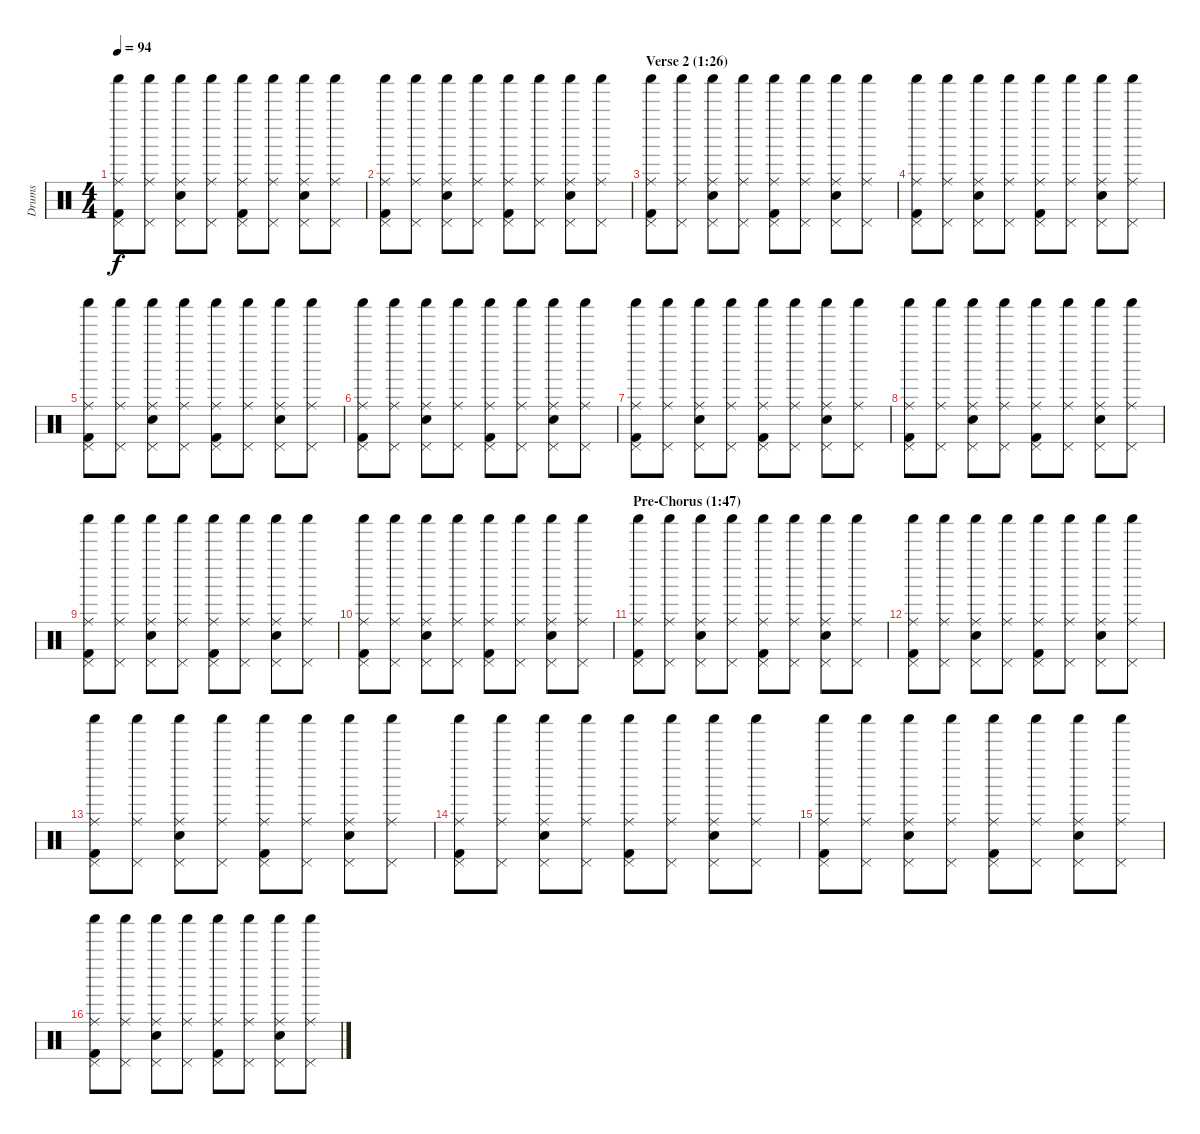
\track ("Drums" "Drums") {instrument percussion}
\staff {score}
\articulation defaults
\ts (4 4)
\tempo 94
\clef neutral
\ks c
("Pedal Hi-Hat (hit)" "Ride (middle)" "Shaker (hit)" "Kick (hit) 2").8{dy f} ("Pedal Hi-Hat (hit)" "Ride (middle)" "Shaker (hit)").8 ("Pedal Hi-Hat (hit)" "Ride (middle)" "Shaker (hit)" "Snare (hit) 2").8 ("Pedal Hi-Hat (hit)" "Ride (middle)" "Shaker (hit)").8 ("Pedal Hi-Hat (hit)" "Ride (middle)" "Shaker (hit)" "Kick (hit) 2").8 ("Pedal Hi-Hat (hit)" "Ride (middle)" "Shaker (hit)").8 ("Pedal Hi-Hat (hit)" "Ride (middle)" "Shaker (hit)" "Snare (hit) 2").8 ("Pedal Hi-Hat (hit)" "Ride (middle)" "Shaker (hit)").8 |
("Pedal Hi-Hat (hit)" "Ride (middle)" "Shaker (hit)" "Kick (hit) 2").8 ("Pedal Hi-Hat (hit)" "Ride (middle)" "Shaker (hit)").8 ("Pedal Hi-Hat (hit)" "Ride (middle)" "Shaker (hit)" "Snare (hit) 2").8 ("Pedal Hi-Hat (hit)" "Ride (middle)" "Shaker (hit)").8 ("Pedal Hi-Hat (hit)" "Ride (middle)" "Shaker (hit)" "Kick (hit) 2").8 ("Pedal Hi-Hat (hit)" "Ride (middle)" "Shaker (hit)").8 ("Pedal Hi-Hat (hit)" "Ride (middle)" "Shaker (hit)" "Snare (hit) 2").8 ("Pedal Hi-Hat (hit)" "Ride (middle)" "Shaker (hit)").8 |
\section ("" "Verse 2 (1:26)")
("Pedal Hi-Hat (hit)" "Ride (middle)" "Shaker (hit)" "Kick (hit) 2").8 ("Pedal Hi-Hat (hit)" "Ride (middle)" "Shaker (hit)").8 ("Pedal Hi-Hat (hit)" "Ride (middle)" "Shaker (hit)" "Snare (hit) 2").8 ("Pedal Hi-Hat (hit)" "Ride (middle)" "Shaker (hit)").8 ("Pedal Hi-Hat (hit)" "Ride (middle)" "Shaker (hit)" "Kick (hit) 2").8 ("Pedal Hi-Hat (hit)" "Ride (middle)" "Shaker (hit)").8 ("Pedal Hi-Hat (hit)" "Ride (middle)" "Shaker (hit)" "Snare (hit) 2").8 ("Pedal Hi-Hat (hit)" "Ride (middle)" "Shaker (hit)").8 |
("Pedal Hi-Hat (hit)" "Ride (middle)" "Shaker (hit)" "Kick (hit) 2").8 ("Pedal Hi-Hat (hit)" "Ride (middle)" "Shaker (hit)").8 ("Pedal Hi-Hat (hit)" "Ride (middle)" "Shaker (hit)" "Snare (hit) 2").8 ("Pedal Hi-Hat (hit)" "Ride (middle)" "Shaker (hit)").8 ("Pedal Hi-Hat (hit)" "Ride (middle)" "Shaker (hit)" "Kick (hit) 2").8 ("Pedal Hi-Hat (hit)" "Ride (middle)" "Shaker (hit)").8 ("Pedal Hi-Hat (hit)" "Ride (middle)" "Shaker (hit)" "Snare (hit) 2").8 ("Pedal Hi-Hat (hit)" "Ride (middle)" "Shaker (hit)").8 |
("Pedal Hi-Hat (hit)" "Ride (middle)" "Shaker (hit)" "Kick (hit) 2").8 ("Pedal Hi-Hat (hit)" "Ride (middle)" "Shaker (hit)").8 ("Pedal Hi-Hat (hit)" "Ride (middle)" "Shaker (hit)" "Snare (hit) 2").8 ("Pedal Hi-Hat (hit)" "Ride (middle)" "Shaker (hit)").8 ("Pedal Hi-Hat (hit)" "Ride (middle)" "Shaker (hit)" "Kick (hit) 2").8 ("Pedal Hi-Hat (hit)" "Ride (middle)" "Shaker (hit)").8 ("Pedal Hi-Hat (hit)" "Ride (middle)" "Shaker (hit)" "Snare (hit) 2").8 ("Pedal Hi-Hat (hit)" "Ride (middle)" "Shaker (hit)").8 |
("Pedal Hi-Hat (hit)" "Ride (middle)" "Shaker (hit)" "Kick (hit) 2").8 ("Pedal Hi-Hat (hit)" "Ride (middle)" "Shaker (hit)").8 ("Pedal Hi-Hat (hit)" "Ride (middle)" "Shaker (hit)" "Snare (hit) 2").8 ("Pedal Hi-Hat (hit)" "Ride (middle)" "Shaker (hit)").8 ("Pedal Hi-Hat (hit)" "Ride (middle)" "Shaker (hit)" "Kick (hit) 2").8 ("Pedal Hi-Hat (hit)" "Ride (middle)" "Shaker (hit)").8 ("Pedal Hi-Hat (hit)" "Ride (middle)" "Shaker (hit)" "Snare (hit) 2").8 ("Pedal Hi-Hat (hit)" "Ride (middle)" "Shaker (hit)").8 |
("Pedal Hi-Hat (hit)" "Ride (middle)" "Shaker (hit)" "Kick (hit) 2").8 ("Pedal Hi-Hat (hit)" "Ride (middle)" "Shaker (hit)").8 ("Pedal Hi-Hat (hit)" "Ride (middle)" "Shaker (hit)" "Snare (hit) 2").8 ("Pedal Hi-Hat (hit)" "Ride (middle)" "Shaker (hit)").8 ("Pedal Hi-Hat (hit)" "Ride (middle)" "Shaker (hit)" "Kick (hit) 2").8 ("Pedal Hi-Hat (hit)" "Ride (middle)" "Shaker (hit)").8 ("Pedal Hi-Hat (hit)" "Ride (middle)" "Shaker (hit)" "Snare (hit) 2").8 ("Pedal Hi-Hat (hit)" "Ride (middle)" "Shaker (hit)").8 |
("Pedal Hi-Hat (hit)" "Ride (middle)" "Shaker (hit)" "Kick (hit) 2").8 ("Pedal Hi-Hat (hit)" "Ride (middle)" "Shaker (hit)").8 ("Pedal Hi-Hat (hit)" "Ride (middle)" "Shaker (hit)" "Snare (hit) 2").8 ("Pedal Hi-Hat (hit)" "Ride (middle)" "Shaker (hit)").8 ("Pedal Hi-Hat (hit)" "Ride (middle)" "Shaker (hit)" "Kick (hit) 2").8 ("Pedal Hi-Hat (hit)" "Ride (middle)" "Shaker (hit)").8 ("Pedal Hi-Hat (hit)" "Ride (middle)" "Shaker (hit)" "Snare (hit) 2").8 ("Pedal Hi-Hat (hit)" "Ride (middle)" "Shaker (hit)").8 |
("Pedal Hi-Hat (hit)" "Ride (middle)" "Shaker (hit)" "Kick (hit) 2").8 ("Pedal Hi-Hat (hit)" "Ride (middle)" "Shaker (hit)").8 ("Pedal Hi-Hat (hit)" "Ride (middle)" "Shaker (hit)" "Snare (hit) 2").8 ("Pedal Hi-Hat (hit)" "Ride (middle)" "Shaker (hit)").8 ("Pedal Hi-Hat (hit)" "Ride (middle)" "Shaker (hit)" "Kick (hit) 2").8 ("Pedal Hi-Hat (hit)" "Ride (middle)" "Shaker (hit)").8 ("Pedal Hi-Hat (hit)" "Ride (middle)" "Shaker (hit)" "Snare (hit) 2").8 ("Pedal Hi-Hat (hit)" "Ride (middle)" "Shaker (hit)").8 |
("Pedal Hi-Hat (hit)" "Ride (middle)" "Shaker (hit)" "Kick (hit) 2").8 ("Pedal Hi-Hat (hit)" "Ride (middle)" "Shaker (hit)").8 ("Pedal Hi-Hat (hit)" "Ride (middle)" "Shaker (hit)" "Snare (hit) 2").8 ("Pedal Hi-Hat (hit)" "Ride (middle)" "Shaker (hit)").8 ("Pedal Hi-Hat (hit)" "Ride (middle)" "Shaker (hit)" "Kick (hit) 2").8 ("Pedal Hi-Hat (hit)" "Ride (middle)" "Shaker (hit)").8 ("Pedal Hi-Hat (hit)" "Ride (middle)" "Shaker (hit)" "Snare (hit) 2").8 ("Pedal Hi-Hat (hit)" "Ride (middle)" "Shaker (hit)").8 |
\section ("" "Pre-Chorus (1:47)")
("Pedal Hi-Hat (hit)" "Ride (middle)" "Shaker (hit)" "Kick (hit) 2").8 ("Pedal Hi-Hat (hit)" "Ride (middle)" "Shaker (hit)").8 ("Pedal Hi-Hat (hit)" "Ride (middle)" "Shaker (hit)" "Snare (hit) 2").8 ("Pedal Hi-Hat (hit)" "Ride (middle)" "Shaker (hit)").8 ("Pedal Hi-Hat (hit)" "Ride (middle)" "Shaker (hit)" "Kick (hit) 2").8 ("Pedal Hi-Hat (hit)" "Ride (middle)" "Shaker (hit)").8 ("Pedal Hi-Hat (hit)" "Ride (middle)" "Shaker (hit)" "Snare (hit) 2").8 ("Pedal Hi-Hat (hit)" "Ride (middle)" "Shaker (hit)").8 |
("Pedal Hi-Hat (hit)" "Ride (middle)" "Shaker (hit)" "Kick (hit) 2").8 ("Pedal Hi-Hat (hit)" "Ride (middle)" "Shaker (hit)").8 ("Pedal Hi-Hat (hit)" "Ride (middle)" "Shaker (hit)" "Snare (hit) 2").8 ("Pedal Hi-Hat (hit)" "Ride (middle)" "Shaker (hit)").8 ("Pedal Hi-Hat (hit)" "Ride (middle)" "Shaker (hit)" "Kick (hit) 2").8 ("Pedal Hi-Hat (hit)" "Ride (middle)" "Shaker (hit)").8 ("Pedal Hi-Hat (hit)" "Ride (middle)" "Shaker (hit)" "Snare (hit) 2").8 ("Pedal Hi-Hat (hit)" "Ride (middle)" "Shaker (hit)").8 |
("Pedal Hi-Hat (hit)" "Ride (middle)" "Shaker (hit)" "Kick (hit) 2").8 ("Pedal Hi-Hat (hit)" "Ride (middle)" "Shaker (hit)").8 ("Pedal Hi-Hat (hit)" "Ride (middle)" "Shaker (hit)" "Snare (hit) 2").8 ("Pedal Hi-Hat (hit)" "Ride (middle)" "Shaker (hit)").8 ("Pedal Hi-Hat (hit)" "Ride (middle)" "Shaker (hit)" "Kick (hit) 2").8 ("Pedal Hi-Hat (hit)" "Ride (middle)" "Shaker (hit)").8 ("Pedal Hi-Hat (hit)" "Ride (middle)" "Shaker (hit)" "Snare (hit) 2").8 ("Pedal Hi-Hat (hit)" "Ride (middle)" "Shaker (hit)").8 |
("Pedal Hi-Hat (hit)" "Ride (middle)" "Shaker (hit)" "Kick (hit) 2").8 ("Pedal Hi-Hat (hit)" "Ride (middle)" "Shaker (hit)").8 ("Pedal Hi-Hat (hit)" "Ride (middle)" "Shaker (hit)" "Snare (hit) 2").8 ("Pedal Hi-Hat (hit)" "Ride (middle)" "Shaker (hit)").8 ("Pedal Hi-Hat (hit)" "Ride (middle)" "Shaker (hit)" "Kick (hit) 2").8 ("Pedal Hi-Hat (hit)" "Ride (middle)" "Shaker (hit)").8 ("Pedal Hi-Hat (hit)" "Ride (middle)" "Shaker (hit)" "Snare (hit) 2").8 ("Pedal Hi-Hat (hit)" "Ride (middle)" "Shaker (hit)").8 |
("Pedal Hi-Hat (hit)" "Ride (middle)" "Shaker (hit)" "Kick (hit) 2").8 ("Pedal Hi-Hat (hit)" "Ride (middle)" "Shaker (hit)").8 ("Pedal Hi-Hat (hit)" "Ride (middle)" "Shaker (hit)" "Snare (hit) 2").8 ("Pedal Hi-Hat (hit)" "Ride (middle)" "Shaker (hit)").8 ("Pedal Hi-Hat (hit)" "Ride (middle)" "Shaker (hit)" "Kick (hit) 2").8 ("Pedal Hi-Hat (hit)" "Ride (middle)" "Shaker (hit)").8 ("Pedal Hi-Hat (hit)" "Ride (middle)" "Shaker (hit)" "Snare (hit) 2").8 ("Pedal Hi-Hat (hit)" "Ride (middle)" "Shaker (hit)").8 |
("Pedal Hi-Hat (hit)" "Ride (middle)" "Shaker (hit)" "Kick (hit) 2").8 ("Pedal Hi-Hat (hit)" "Ride (middle)" "Shaker (hit)").8 ("Pedal Hi-Hat (hit)" "Ride (middle)" "Shaker (hit)" "Snare (hit) 2").8 ("Pedal Hi-Hat (hit)" "Ride (middle)" "Shaker (hit)").8 ("Pedal Hi-Hat (hit)" "Ride (middle)" "Shaker (hit)" "Kick (hit) 2").8 ("Pedal Hi-Hat (hit)" "Ride (middle)" "Shaker (hit)").8 ("Pedal Hi-Hat (hit)" "Ride (middle)" "Shaker (hit)" "Snare (hit) 2").8 ("Pedal Hi-Hat (hit)" "Ride (middle)" "Shaker (hit)").8
